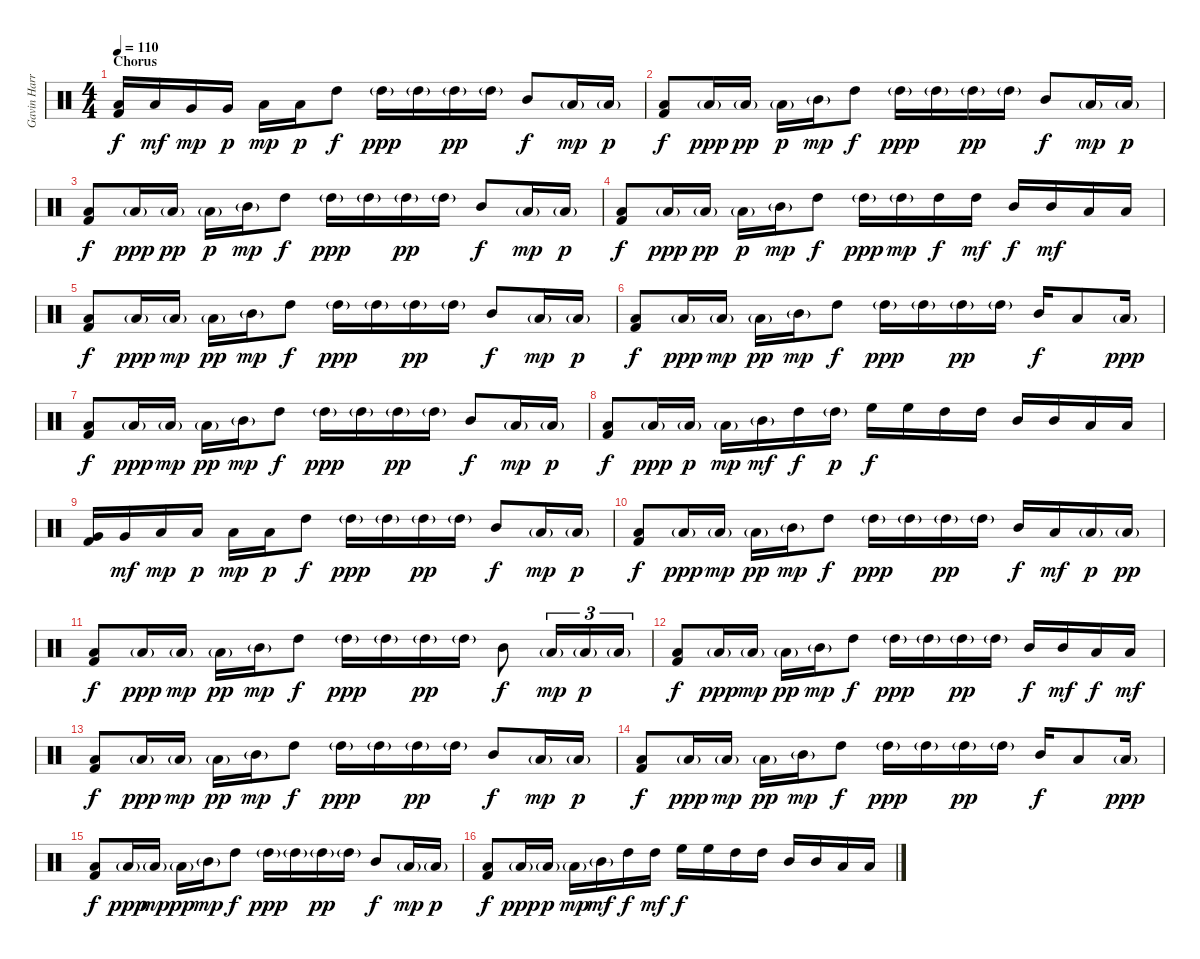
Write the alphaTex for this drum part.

\track ("Gavin Harrison - Drums" "Gavin Harr") {instrument percussion}
\staff {score}
\articulation defaults
\ts (4 4)
\section ("" "Chorus")
\tempo 110
\clef neutral
\ks c
("Low Tom (hit)" "Kick (hit) 2").16{dy f} "Low Tom (hit)".16{dy mf} "Very Low Tom (hit)".16{dy mp} "Very Low Tom (hit)".16{dy p} "Low Floor Tom (hit)".16{dy mp} "Low Floor Tom (hit)".16{dy p} "High Tom (hit)".8{dy f} "High Tom (hit)"{g}.16{dy ppp} "High Tom (hit)"{g}.16 "High Tom (hit)"{g}.16{dy pp} "High Tom (hit)"{g}.16 "Mid Tom (hit)".8{dy f} "Low Tom (hit)"{g}.16{dy mp} "Low Tom (hit)"{g}.16{dy p} |
("Low Floor Tom (hit)" "Kick (hit) 2").8{dy f} "Low Floor Tom (hit)"{g}.16{dy ppp} "Low Tom (hit)"{g}.16{dy pp} "Low Tom (hit)"{g}.16{dy p} "Mid Tom (hit)"{g}.16{dy mp} "High Tom (hit)".8{dy f} "High Tom (hit)"{g}.16{dy ppp} "High Tom (hit)"{g}.16 "High Tom (hit)"{g}.16{dy pp} "High Tom (hit)"{g}.16 "Mid Tom (hit)".8{dy f} "Low Tom (hit)"{g}.16{dy mp} "Low Tom (hit)"{g}.16{dy p} |
("Low Floor Tom (hit)" "Kick (hit) 2").8{dy f} "Low Floor Tom (hit)"{g}.16{dy ppp} "Low Tom (hit)"{g}.16{dy pp} "Low Tom (hit)"{g}.16{dy p} "Mid Tom (hit)"{g}.16{dy mp} "High Tom (hit)".8{dy f} "High Tom (hit)"{g}.16{dy ppp} "High Tom (hit)"{g}.16 "High Tom (hit)"{g}.16{dy pp} "High Tom (hit)"{g}.16 "Mid Tom (hit)".8{dy f} "Low Tom (hit)"{g}.16{dy mp} "Low Tom (hit)"{g}.16{dy p} |
("Low Floor Tom (hit)" "Kick (hit) 2").8{dy f} "Low Floor Tom (hit)"{g}.16{dy ppp} "Low Tom (hit)"{g}.16{dy pp} "Low Tom (hit)"{g}.16{dy p} "Mid Tom (hit)"{g}.16{dy mp} "High Tom (hit)".8{dy f} "High Tom (hit)"{g}.16{dy ppp} "High Tom (hit)"{g}.16{dy mp} "High Tom (hit)".16{dy f} "High Tom (hit)".16{dy mf} "Mid Tom (hit)".16{dy f} "Mid Tom (hit)".16{dy mf} "Low Tom (hit)".16 "Low Tom (hit)".16 |
("Low Floor Tom (hit)" "Kick (hit) 2").8{dy f} "Low Floor Tom (hit)"{g}.16{dy ppp} "Low Tom (hit)"{g}.16{dy mp} "Low Tom (hit)"{g}.16{dy pp} "Mid Tom (hit)"{g}.16{dy mp} "High Tom (hit)".8{dy f} "High Tom (hit)"{g}.16{dy ppp} "High Tom (hit)"{g}.16 "High Tom (hit)"{g}.16{dy pp} "High Tom (hit)"{g}.16 "Mid Tom (hit)".8{dy f} "Low Tom (hit)"{g}.16{dy mp} "Low Tom (hit)"{g}.16{dy p} |
("Low Floor Tom (hit)" "Kick (hit) 2").8{dy f} "Low Floor Tom (hit)"{g}.16{dy ppp} "Low Tom (hit)"{g}.16{dy mp} "Low Tom (hit)"{g}.16{dy pp} "Mid Tom (hit)"{g}.16{dy mp} "High Tom (hit)".8{dy f} "High Tom (hit)"{g}.16{dy ppp} "High Tom (hit)"{g}.16 "High Tom (hit)"{g}.16{dy pp} "High Tom (hit)"{g}.16 "Mid Tom (hit)".16{dy f} "Low Floor Tom (hit)".8 "Low Floor Tom (hit)"{g}.16{dy ppp} |
("Low Floor Tom (hit)" "Kick (hit) 2").8{dy f} "Low Floor Tom (hit)"{g}.16{dy ppp} "Low Tom (hit)"{g}.16{dy mp} "Low Tom (hit)"{g}.16{dy pp} "Mid Tom (hit)"{g}.16{dy mp} "High Tom (hit)".8{dy f} "High Tom (hit)"{g}.16{dy ppp} "High Tom (hit)"{g}.16 "High Tom (hit)"{g}.16{dy pp} "High Tom (hit)"{g}.16 "Mid Tom (hit)".8{dy f} "Low Tom (hit)"{g}.16{dy mp} "Low Tom (hit)"{g}.16{dy p} |
("Low Floor Tom (hit)" "Kick (hit) 2").8{dy f} "Low Floor Tom (hit)"{g}.16{dy ppp} "Low Tom (hit)"{g}.16{dy p} "Low Tom (hit)"{g}.16{dy mp} "Mid Tom (hit)"{g}.16{dy mf} "High Tom (hit)".16{dy f} "High Tom (hit)"{g}.16{dy p} "High Floor Tom (hit)".16{dy f} "High Floor Tom (hit)".16 "High Tom (hit)".16 "High Tom (hit)".16 "Mid Tom (hit)".16 "Mid Tom (hit)".16 "Low Tom (hit)".16 "Low Tom (hit)".16 |
("Very Low Tom (hit)" "Kick (hit) 2").16 "Very Low Tom (hit)".16{dy mf} "Low Floor Tom (hit)".16{dy mp} "Low Floor Tom (hit)".16{dy p} "Low Floor Tom (hit)".16{dy mp} "Low Floor Tom (hit)".16{dy p} "High Tom (hit)".8{dy f} "High Tom (hit)"{g}.16{dy ppp} "High Tom (hit)"{g}.16 "High Tom (hit)"{g}.16{dy pp} "High Tom (hit)"{g}.16 "Mid Tom (hit)".8{dy f} "Low Tom (hit)"{g}.16{dy mp} "Low Tom (hit)"{g}.16{dy p} |
("Low Floor Tom (hit)" "Kick (hit) 2").8{dy f} "Low Floor Tom (hit)"{g}.16{dy ppp} "Low Tom (hit)"{g}.16{dy mp} "Low Tom (hit)"{g}.16{dy pp} "Mid Tom (hit)"{g}.16{dy mp} "High Tom (hit)".8{dy f} "High Tom (hit)"{g}.16{dy ppp} "High Tom (hit)"{g}.16 "High Tom (hit)"{g}.16{dy pp} "High Tom (hit)"{g}.16 "Mid Tom (hit)".16{dy f} "Low Tom (hit)".16{dy mf} "Low Tom (hit)"{g}.16{dy p} "Low Tom (hit)"{g}.16{dy pp} |
("Low Floor Tom (hit)" "Kick (hit) 2").8{dy f} "Low Floor Tom (hit)"{g}.16{dy ppp} "Low Tom (hit)"{g}.16{dy mp} "Low Tom (hit)"{g}.16{dy pp} "Mid Tom (hit)"{g}.16{dy mp} "High Tom (hit)".8{dy f} "High Tom (hit)"{g}.16{dy ppp} "High Tom (hit)"{g}.16 "High Tom (hit)"{g}.16{dy pp} "High Tom (hit)"{g}.16 "Mid Tom (hit)".8{dy f} "Low Tom (hit)"{g}.16{tu (3 2) dy mp} "Low Tom (hit)"{g}.16{tu (3 2) dy p} "Low Tom (hit)"{g}.16{tu (3 2)} |
("Low Floor Tom (hit)" "Kick (hit) 2").8{dy f} "Low Floor Tom (hit)"{g}.16{dy ppp} "Low Tom (hit)"{g}.16{dy mp} "Low Tom (hit)"{g}.16{dy pp} "Mid Tom (hit)"{g}.16{dy mp} "High Tom (hit)".8{dy f} "High Tom (hit)"{g}.16{dy ppp} "High Tom (hit)"{g}.16 "High Tom (hit)"{g}.16{dy pp} "High Tom (hit)"{g}.16 "Mid Tom (hit)".16{dy f} "Mid Tom (hit)".16{dy mf} "Low Tom (hit)".16{dy f} "Low Tom (hit)".16{dy mf} |
("Low Floor Tom (hit)" "Kick (hit) 2").8{dy f} "Low Floor Tom (hit)"{g}.16{dy ppp} "Low Tom (hit)"{g}.16{dy mp} "Low Tom (hit)"{g}.16{dy pp} "Mid Tom (hit)"{g}.16{dy mp} "High Tom (hit)".8{dy f} "High Tom (hit)"{g}.16{dy ppp} "High Tom (hit)"{g}.16 "High Tom (hit)"{g}.16{dy pp} "High Tom (hit)"{g}.16 "Mid Tom (hit)".8{dy f} "Low Tom (hit)"{g}.16{dy mp} "Low Tom (hit)"{g}.16{dy p} |
("Low Floor Tom (hit)" "Kick (hit) 2").8{dy f} "Low Floor Tom (hit)"{g}.16{dy ppp} "Low Tom (hit)"{g}.16{dy mp} "Low Tom (hit)"{g}.16{dy pp} "Mid Tom (hit)"{g}.16{dy mp} "High Tom (hit)".8{dy f} "High Tom (hit)"{g}.16{dy ppp} "High Tom (hit)"{g}.16 "High Tom (hit)"{g}.16{dy pp} "High Tom (hit)"{g}.16 "Mid Tom (hit)".16{dy f} "Low Floor Tom (hit)".8 "Low Floor Tom (hit)"{g}.16{dy ppp} |
("Low Floor Tom (hit)" "Kick (hit) 2").8{dy f} "Low Floor Tom (hit)"{g}.16{dy ppp} "Low Tom (hit)"{g}.16{dy mp} "Low Tom (hit)"{g}.16{dy pp} "Mid Tom (hit)"{g}.16{dy mp} "High Tom (hit)".8{dy f} "High Tom (hit)"{g}.16{dy ppp} "High Tom (hit)"{g}.16 "High Tom (hit)"{g}.16{dy pp} "High Tom (hit)"{g}.16 "Mid Tom (hit)".8{dy f} "Low Tom (hit)"{g}.16{dy mp} "Low Tom (hit)"{g}.16{dy p} |
("Low Floor Tom (hit)" "Kick (hit) 2").8{dy f} "Low Floor Tom (hit)"{g}.16{dy ppp} "Low Tom (hit)"{g}.16{dy p} "Low Tom (hit)"{g}.16{dy mp} "Mid Tom (hit)"{g}.16{dy mf} "High Tom (hit)".16{dy f} "High Tom (hit)".16{dy mf} "High Floor Tom (hit)".16{dy f} "High Floor Tom (hit)".16 "High Tom (hit)".16 "High Tom (hit)".16 "Mid Tom (hit)".16 "Mid Tom (hit)".16 "Low Tom (hit)".16 "Low Tom (hit)".16
